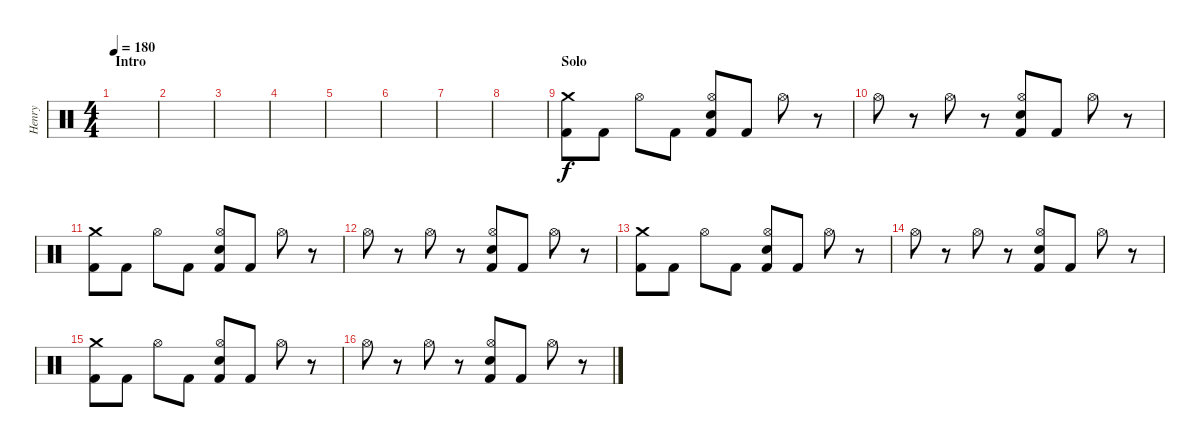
\track ("Henry" "Henry") {instrument percussion}
\staff {score}
\articulation defaults
\ts (4 4)
\section ("" "Intro")
\tempo 180
\clef neutral
\ks c
|
|
|
|
|
|
|
|
\section ("" "Solo")
("Crash medium (hit)" "Kick (hit) 2").8 "Kick (hit) 2".8 "Hi-Hat (open)".8 "Kick (hit) 2".8 ("Hi-Hat (open)" "Snare (hit) 2" "Kick (hit) 2").8 "Kick (hit) 2".8 "Hi-Hat (open)".8 r.8 |
"Hi-Hat (open)".8 r.8 "Hi-Hat (open)".8 r.8 ("Hi-Hat (open)" "Snare (hit) 2" "Kick (hit) 2").8 "Kick (hit) 2".8 "Hi-Hat (open)".8 r.8 |
("Crash medium (hit)" "Kick (hit) 2").8 "Kick (hit) 2".8 "Hi-Hat (open)".8 "Kick (hit) 2".8 ("Hi-Hat (open)" "Snare (hit) 2" "Kick (hit) 2").8 "Kick (hit) 2".8 "Hi-Hat (open)".8 r.8 |
"Hi-Hat (open)".8 r.8 "Hi-Hat (open)".8 r.8 ("Hi-Hat (open)" "Snare (hit) 2" "Kick (hit) 2").8 "Kick (hit) 2".8 "Hi-Hat (open)".8 r.8 |
("Crash medium (hit)" "Kick (hit) 2").8 "Kick (hit) 2".8 "Hi-Hat (open)".8 "Kick (hit) 2".8 ("Hi-Hat (open)" "Snare (hit) 2" "Kick (hit) 2").8 "Kick (hit) 2".8 "Hi-Hat (open)".8 r.8 |
"Hi-Hat (open)".8 r.8 "Hi-Hat (open)".8 r.8 ("Hi-Hat (open)" "Snare (hit) 2" "Kick (hit) 2").8 "Kick (hit) 2".8 "Hi-Hat (open)".8 r.8 |
("Crash medium (hit)" "Kick (hit) 2").8 "Kick (hit) 2".8 "Hi-Hat (open)".8 "Kick (hit) 2".8 ("Hi-Hat (open)" "Snare (hit) 2" "Kick (hit) 2").8 "Kick (hit) 2".8 "Hi-Hat (open)".8 r.8 |
"Hi-Hat (open)".8 r.8 "Hi-Hat (open)".8 r.8 ("Hi-Hat (open)" "Snare (hit) 2" "Kick (hit) 2").8 "Kick (hit) 2".8 "Hi-Hat (open)".8 r.8
